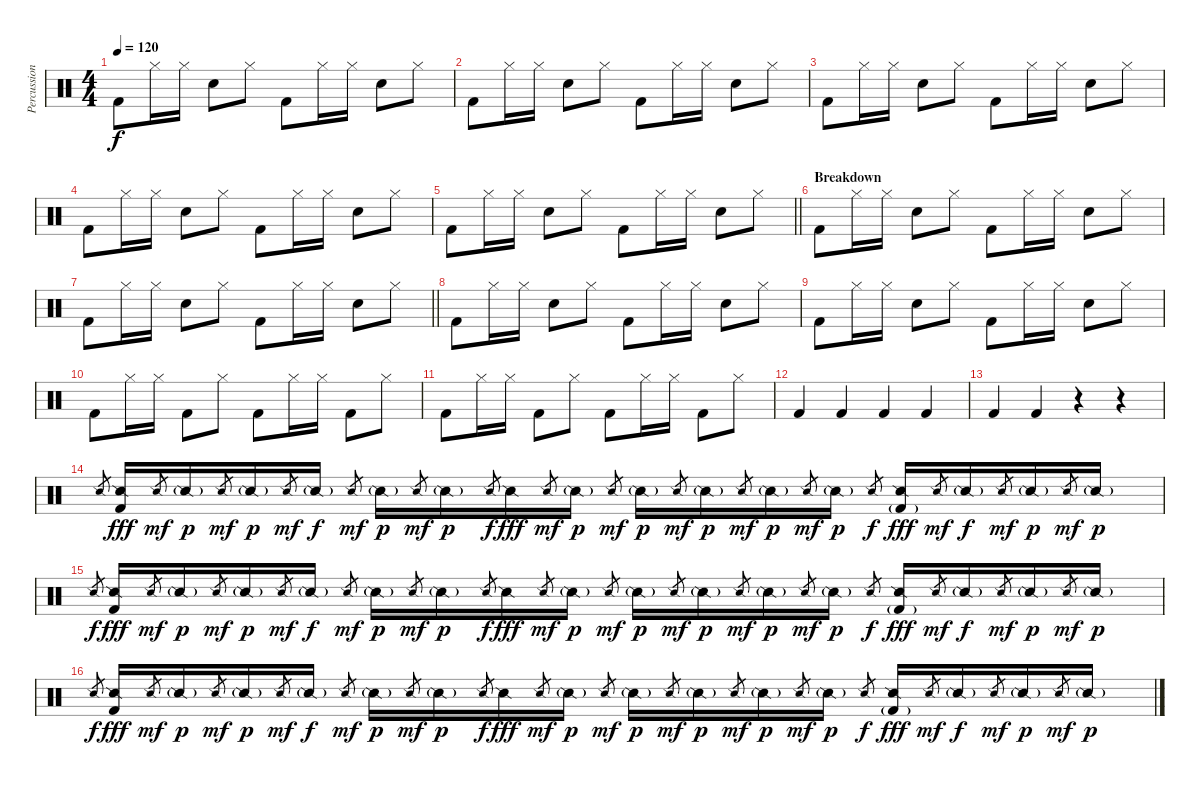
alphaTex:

\track ("Percussion" "Percussion") {instrument percussion}
\staff {score}
\articulation defaults
\ts (4 4)
\tempo 120
\clef neutral
\ks c "Kick (hit) 2".8{dy f} "Hi-Hat (closed)".16 "Hi-Hat (closed)".16 "Snare (hit) 2".8 "Hi-Hat (closed)".8 "Kick (hit) 2".8 "Hi-Hat (closed)".16 "Hi-Hat (closed)".16 "Snare (hit) 2".8 "Hi-Hat (closed)".8
|
"Kick (hit) 2".8 "Hi-Hat (closed)".16 "Hi-Hat (closed)".16 "Snare (hit) 2".8 "Hi-Hat (closed)".8 "Kick (hit) 2".8 "Hi-Hat (closed)".16 "Hi-Hat (closed)".16 "Snare (hit) 2".8 "Hi-Hat (closed)".8 |
"Kick (hit) 2".8 "Hi-Hat (closed)".16 "Hi-Hat (closed)".16 "Snare (hit) 2".8 "Hi-Hat (closed)".8 "Kick (hit) 2".8 "Hi-Hat (closed)".16 "Hi-Hat (closed)".16 "Snare (hit) 2".8 "Hi-Hat (closed)".8 |
"Kick (hit) 2".8 "Hi-Hat (closed)".16 "Hi-Hat (closed)".16 "Snare (hit) 2".8 "Hi-Hat (closed)".8 "Kick (hit) 2".8 "Hi-Hat (closed)".16 "Hi-Hat (closed)".16 "Snare (hit) 2".8 "Hi-Hat (closed)".8 |
\barLineRight lightlight "Kick (hit) 2".8 "Hi-Hat (closed)".16 "Hi-Hat (closed)".16 "Snare (hit) 2".8 "Hi-Hat (closed)".8 "Kick (hit) 2".8 "Hi-Hat (closed)".16 "Hi-Hat (closed)".16 "Snare (hit) 2".8 "Hi-Hat (closed)".8
|
\section ("" "Breakdown")
"Kick (hit) 2".8 "Hi-Hat (closed)".16 "Hi-Hat (closed)".16 "Snare (hit) 2".8 "Hi-Hat (closed)".8 "Kick (hit) 2".8 "Hi-Hat (closed)".16 "Hi-Hat (closed)".16 "Snare (hit) 2".8 "Hi-Hat (closed)".8 |
\barLineRight lightlight "Kick (hit) 2".8 "Hi-Hat (closed)".16 "Hi-Hat (closed)".16 "Snare (hit) 2".8 "Hi-Hat (closed)".8 "Kick (hit) 2".8 "Hi-Hat (closed)".16 "Hi-Hat (closed)".16 "Snare (hit) 2".8 "Hi-Hat (closed)".8
|
"Kick (hit) 2".8 "Hi-Hat (closed)".16 "Hi-Hat (closed)".16 "Snare (hit) 2".8 "Hi-Hat (closed)".8 "Kick (hit) 2".8 "Hi-Hat (closed)".16 "Hi-Hat (closed)".16 "Snare (hit) 2".8 "Hi-Hat (closed)".8 |
"Kick (hit) 2".8 "Hi-Hat (closed)".16 "Hi-Hat (closed)".16 "Snare (hit) 2".8 "Hi-Hat (closed)".8 "Kick (hit) 2".8 "Hi-Hat (closed)".16 "Hi-Hat (closed)".16 "Snare (hit) 2".8 "Hi-Hat (closed)".8 |
"Kick (hit) 2".8 "Hi-Hat (closed)".16 "Hi-Hat (closed)".16 "Kick (hit) 2".8 "Hi-Hat (closed)".8 "Kick (hit) 2".8 "Hi-Hat (closed)".16 "Hi-Hat (closed)".16 "Kick (hit) 2".8 "Hi-Hat (closed)".8 |
"Kick (hit) 2".8 "Hi-Hat (closed)".16 "Hi-Hat (closed)".16 "Kick (hit) 2".8 "Hi-Hat (closed)".8 "Kick (hit) 2".8 "Hi-Hat (closed)".16 "Hi-Hat (closed)".16 "Kick (hit) 2".8 "Hi-Hat (closed)".8 |
"Kick (hit) 2".4 "Kick (hit) 2".4 "Kick (hit) 2".4 "Kick (hit) 2".4 |
"Kick (hit) 2".4 "Kick (hit) 2".4 r.4 r.4 |
"Snare (side stick) 2".8{gr} ("Snare (side stick) 2" "Kick (hit) 2").16{dy fff} "Snare (side stick) 2".8{gr dy mf} "Snare (side stick) 2"{g}.16{dy p} "Snare (side stick) 2".8{gr dy mf} "Snare (side stick) 2"{g}.16{dy p} "Snare (side stick) 2".8{gr dy mf} "Snare (side stick) 2"{g}.16{dy f} "Snare (side stick) 2".8{gr dy mf} "Snare (side stick) 2"{g}.16{dy p} "Snare (side stick) 2".8{gr dy mf} "Snare (side stick) 2"{g}.16{dy p} "Snare (side stick) 2".8{gr dy f} "Snare (side stick) 2".16{dy fff} "Snare (side stick) 2".8{gr dy mf} "Snare (side stick) 2"{g}.16{dy p} "Snare (side stick) 2".8{gr dy mf} "Snare (side stick) 2"{g}.16{dy p} "Snare (side stick) 2".8{gr dy mf} "Snare (side stick) 2"{g}.16{dy p} "Snare (side stick) 2".8{gr dy mf} "Snare (side stick) 2"{g}.16{dy p} "Snare (side stick) 2".8{gr dy mf} "Snare (side stick) 2"{g}.16{dy p} "Snare (side stick) 2".8{gr dy f} ("Snare (side stick) 2" "Kick (hit) 2"{g}).16{dy fff} "Snare (side stick) 2".8{gr dy mf} "Snare (side stick) 2"{g}.16{dy f} "Snare (side stick) 2".8{gr dy mf} "Snare (side stick) 2"{g}.16{dy p} "Snare (side stick) 2".8{gr dy mf} "Snare (side stick) 2"{g}.16{dy p} |
"Snare (side stick) 2".8{gr dy f} ("Snare (side stick) 2" "Kick (hit) 2").16{dy fff} "Snare (side stick) 2".8{gr dy mf} "Snare (side stick) 2"{g}.16{dy p} "Snare (side stick) 2".8{gr dy mf} "Snare (side stick) 2"{g}.16{dy p} "Snare (side stick) 2".8{gr dy mf} "Snare (side stick) 2"{g}.16{dy f} "Snare (side stick) 2".8{gr dy mf} "Snare (side stick) 2"{g}.16{dy p} "Snare (side stick) 2".8{gr dy mf} "Snare (side stick) 2"{g}.16{dy p} "Snare (side stick) 2".8{gr dy f} "Snare (side stick) 2".16{dy fff} "Snare (side stick) 2".8{gr dy mf} "Snare (side stick) 2"{g}.16{dy p} "Snare (side stick) 2".8{gr dy mf} "Snare (side stick) 2"{g}.16{dy p} "Snare (side stick) 2".8{gr dy mf} "Snare (side stick) 2"{g}.16{dy p} "Snare (side stick) 2".8{gr dy mf} "Snare (side stick) 2"{g}.16{dy p} "Snare (side stick) 2".8{gr dy mf} "Snare (side stick) 2"{g}.16{dy p} "Snare (side stick) 2".8{gr dy f} ("Snare (side stick) 2" "Kick (hit) 2"{g}).16{dy fff} "Snare (side stick) 2".8{gr dy mf} "Snare (side stick) 2"{g}.16{dy f} "Snare (side stick) 2".8{gr dy mf} "Snare (side stick) 2"{g}.16{dy p} "Snare (side stick) 2".8{gr dy mf} "Snare (side stick) 2"{g}.16{dy p} |
"Snare (side stick) 2".8{gr dy f} ("Snare (side stick) 2" "Kick (hit) 2").16{dy fff} "Snare (side stick) 2".8{gr dy mf} "Snare (side stick) 2"{g}.16{dy p} "Snare (side stick) 2".8{gr dy mf} "Snare (side stick) 2"{g}.16{dy p} "Snare (side stick) 2".8{gr dy mf} "Snare (side stick) 2"{g}.16{dy f} "Snare (side stick) 2".8{gr dy mf} "Snare (side stick) 2"{g}.16{dy p} "Snare (side stick) 2".8{gr dy mf} "Snare (side stick) 2"{g}.16{dy p} "Snare (side stick) 2".8{gr dy f} "Snare (side stick) 2".16{dy fff} "Snare (side stick) 2".8{gr dy mf} "Snare (side stick) 2"{g}.16{dy p} "Snare (side stick) 2".8{gr dy mf} "Snare (side stick) 2"{g}.16{dy p} "Snare (side stick) 2".8{gr dy mf} "Snare (side stick) 2"{g}.16{dy p} "Snare (side stick) 2".8{gr dy mf} "Snare (side stick) 2"{g}.16{dy p} "Snare (side stick) 2".8{gr dy mf} "Snare (side stick) 2"{g}.16{dy p} "Snare (side stick) 2".8{gr dy f} ("Snare (side stick) 2" "Kick (hit) 2"{g}).16{dy fff} "Snare (side stick) 2".8{gr dy mf} "Snare (side stick) 2"{g}.16{dy f} "Snare (side stick) 2".8{gr dy mf} "Snare (side stick) 2"{g}.16{dy p} "Snare (side stick) 2".8{gr dy mf} "Snare (side stick) 2"{g}.16{dy p}
